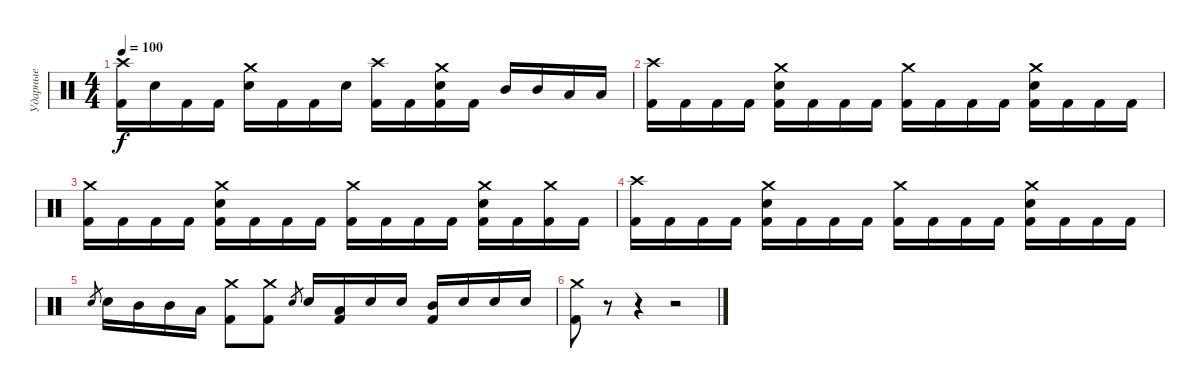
\track ("Ударные" "Ударные") {instrument percussion}
\staff {score}
\articulation defaults
\ts (4 4)
\tempo 100
\clef neutral
\ks c
("Crash high (hit)" "Kick (hit) 2").16{dy f} "Electric Snare (hit)".16 "Kick (hit) 2".16 "Kick (hit) 2".16 ("Crash medium (hit)" "Electric Snare (hit)").16 "Kick (hit) 2".16 "Kick (hit) 2".16 "Electric Snare (hit)".16 ("Crash high (hit)" "Kick (hit) 2").16 "Kick (hit) 2".16 ("Crash medium (hit)" "Electric Snare (hit)" "Kick (hit) 2").16 "Kick (hit) 2".16 "Mid Tom (hit)".16 "Mid Tom (hit)".16 "Low Tom (hit)".16 "Low Tom (hit)".16 |
("Crash high (hit)" "Kick (hit) 2").16 "Kick (hit) 2".16 "Kick (hit) 2".16 "Kick (hit) 2".16 ("Crash medium (hit)" "Electric Snare (hit)" "Kick (hit) 2").16 "Kick (hit) 2".16 "Kick (hit) 2".16 "Kick (hit) 2".16 ("Crash medium (hit)" "Kick (hit) 2").16 "Kick (hit) 2".16 "Kick (hit) 2".16 "Kick (hit) 2".16 ("Crash medium (hit)" "Electric Snare (hit)" "Kick (hit) 2").16 "Kick (hit) 2".16 "Kick (hit) 2".16 "Kick (hit) 2".16 |
("Crash medium (hit)" "Kick (hit) 2").16 "Kick (hit) 2".16 "Kick (hit) 2".16 "Kick (hit) 2".16 ("Crash medium (hit)" "Electric Snare (hit)" "Kick (hit) 2").16 "Kick (hit) 2".16 "Kick (hit) 2".16 "Kick (hit) 2".16 ("Crash medium (hit)" "Kick (hit) 2").16 "Kick (hit) 2".16 "Kick (hit) 2".16 "Kick (hit) 2".16 ("Crash medium (hit)" "Electric Snare (hit)" "Kick (hit) 2").16 "Kick (hit) 2".16 ("Crash medium (hit)" "Kick (hit) 2").16 "Kick (hit) 2".16 |
("Crash high (hit)" "Kick (hit) 2").16 "Kick (hit) 2".16 "Kick (hit) 2".16 "Kick (hit) 2".16 ("Crash medium (hit)" "Electric Snare (hit)" "Kick (hit) 2").16 "Kick (hit) 2".16 "Kick (hit) 2".16 "Kick (hit) 2".16 ("Crash medium (hit)" "Kick (hit) 2").16 "Kick (hit) 2".16 "Kick (hit) 2".16 "Kick (hit) 2".16 ("Crash medium (hit)" "Electric Snare (hit)" "Kick (hit) 2").16 "Kick (hit) 2".16 "Kick (hit) 2".16 "Kick (hit) 2".16 |
"Electric Snare (hit)".8{gr} "Electric Snare (hit)".16 "Mid Tom (hit)".16 "Mid Tom (hit)".16 "Low Tom (hit)".16 ("Crash medium (hit)" "Kick (hit) 2").8 ("Crash medium (hit)" "Kick (hit) 2").8 "Electric Snare (hit)".8{gr} "Electric Snare (hit)".16 ("Low Tom (hit)" "Kick (hit) 2").16 "Electric Snare (hit)".16 "Electric Snare (hit)".16 ("Mid Tom (hit)" "Kick (hit) 2").16 "Electric Snare (hit)".16 "Electric Snare (hit)".16 "Electric Snare (hit)".16 |
("Crash medium (hit)" "Kick (hit) 2").8 r.8 r.4 r.2
